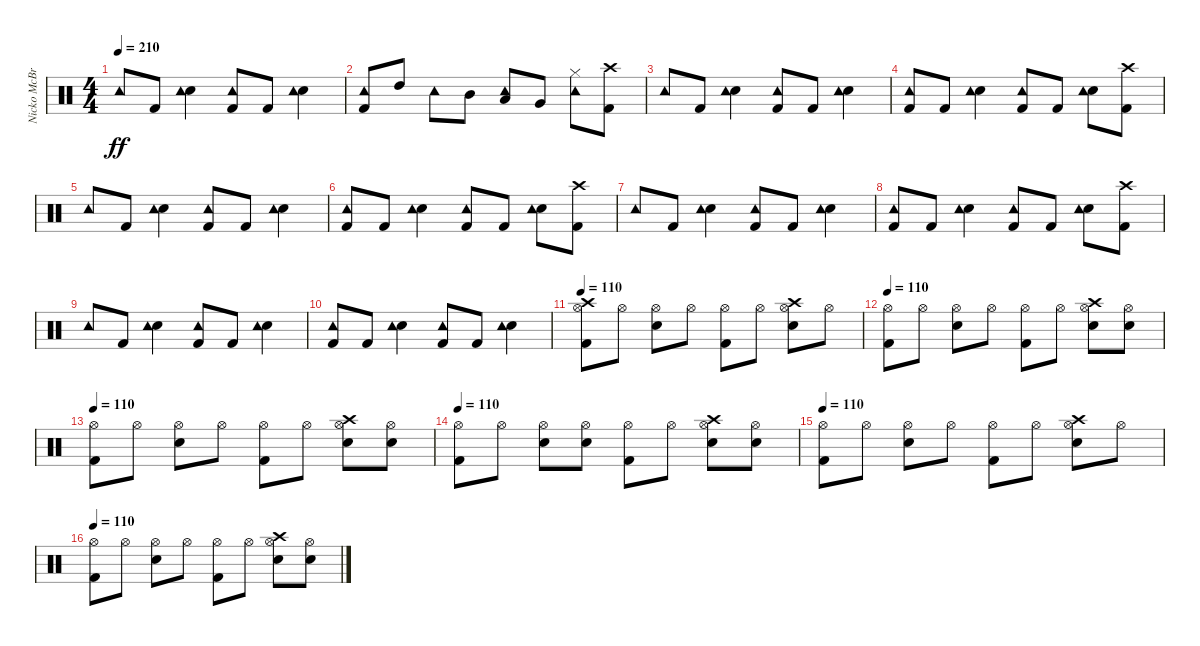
\track ("Nicko McBrain" "Nicko McBr") {instrument percussion}
\staff {score}
\articulation defaults
\ts (4 4)
\tempo 210
\clef neutral
\ks c "Tambourine (hit)".8{dy ff} "Kick (hit) 2".8
("Snare (hit) 2" "Tambourine (hit)").4 ("Kick (hit) 2" "Tambourine (hit)").8 "Kick (hit) 2".8 ("Snare (hit) 2" "Tambourine (hit)").4 |
("Kick (hit) 2" "Tambourine (hit)").8 "High Tom (hit)".8 "Tambourine (hit)".8 "Mid Tom (hit)".8 ("Low Tom (hit)" "Tambourine (hit)").8 "Very Low Tom (hit)".8 ("Hi-Hat (closed)" "Tambourine (hit)").8 ("Kick (hit) 2" "Crash high (hit)").8 |
"Tambourine (hit)".8 "Kick (hit) 2".8 ("Snare (hit) 2" "Tambourine (hit)").4 ("Kick (hit) 2" "Tambourine (hit)").8 "Kick (hit) 2".8 ("Snare (hit) 2" "Tambourine (hit)").4 |
("Kick (hit) 2" "Tambourine (hit)").8 "Kick (hit) 2".8 ("Snare (hit) 2" "Tambourine (hit)").4 ("Kick (hit) 2" "Tambourine (hit)").8 "Kick (hit) 2".8 ("Snare (hit) 2" "Tambourine (hit)").8 ("Kick (hit) 2" "Crash high (hit)").8 |
"Tambourine (hit)".8 "Kick (hit) 2".8 ("Snare (hit) 2" "Tambourine (hit)").4 ("Kick (hit) 2" "Tambourine (hit)").8 "Kick (hit) 2".8 ("Snare (hit) 2" "Tambourine (hit)").4 |
("Kick (hit) 2" "Tambourine (hit)").8 "Kick (hit) 2".8 ("Snare (hit) 2" "Tambourine (hit)").4 ("Kick (hit) 2" "Tambourine (hit)").8 "Kick (hit) 2".8 ("Snare (hit) 2" "Tambourine (hit)").8 ("Kick (hit) 2" "Crash high (hit)").8 |
"Tambourine (hit)".8 "Kick (hit) 2".8 ("Snare (hit) 2" "Tambourine (hit)").4 ("Kick (hit) 2" "Tambourine (hit)").8 "Kick (hit) 2".8 ("Snare (hit) 2" "Tambourine (hit)").4 |
("Kick (hit) 2" "Tambourine (hit)").8 "Kick (hit) 2".8 ("Snare (hit) 2" "Tambourine (hit)").4 ("Kick (hit) 2" "Tambourine (hit)").8 "Kick (hit) 2".8 ("Snare (hit) 2" "Tambourine (hit)").8 ("Kick (hit) 2" "Crash high (hit)").8 |
"Tambourine (hit)".8 "Kick (hit) 2".8 ("Snare (hit) 2" "Tambourine (hit)").4 ("Kick (hit) 2" "Tambourine (hit)").8 "Kick (hit) 2".8 ("Snare (hit) 2" "Tambourine (hit)").4 |
("Kick (hit) 2" "Tambourine (hit)").8 "Kick (hit) 2".8 ("Snare (hit) 2" "Tambourine (hit)").4 ("Kick (hit) 2" "Tambourine (hit)").8 "Kick (hit) 2".8 ("Snare (hit) 2" "Tambourine (hit)").4 |
\tempo 105
\tempo 110
("Kick (hit) 2" "Hi-Hat (open)" "Crash high (hit)").8 "Hi-Hat (open)".8 ("Snare (hit) 2" "Hi-Hat (open)").8 "Hi-Hat (open)".8 ("Kick (hit) 2" "Hi-Hat (open)").8 "Hi-Hat (open)".8 ("Snare (hit) 2" "Hi-Hat (open)" "Crash high (hit)").8 "Hi-Hat (open)".8 |
\tempo 110
("Kick (hit) 2" "Hi-Hat (open)").8 "Hi-Hat (open)".8 ("Snare (hit) 2" "Hi-Hat (open)").8 "Hi-Hat (open)".8 ("Kick (hit) 2" "Hi-Hat (open)").8 "Hi-Hat (open)".8 ("Snare (hit) 2" "Hi-Hat (open)" "Crash high (hit)").8 ("Snare (hit) 2" "Hi-Hat (open)").8 |
\tempo 110
("Kick (hit) 2" "Hi-Hat (open)").8 "Hi-Hat (open)".8 ("Snare (hit) 2" "Hi-Hat (open)").8 "Hi-Hat (open)".8 ("Kick (hit) 2" "Hi-Hat (open)").8 "Hi-Hat (open)".8 ("Snare (hit) 2" "Hi-Hat (open)" "Crash high (hit)").8 ("Snare (hit) 2" "Hi-Hat (open)").8 |
\tempo 110
("Kick (hit) 2" "Hi-Hat (open)").8 "Hi-Hat (open)".8 ("Snare (hit) 2" "Hi-Hat (open)").8 ("Snare (hit) 2" "Hi-Hat (open)").8 ("Kick (hit) 2" "Hi-Hat (open)").8 "Hi-Hat (open)".8 ("Snare (hit) 2" "Hi-Hat (open)" "Crash high (hit)").8 ("Snare (hit) 2" "Hi-Hat (open)").8 |
\tempo 110
("Kick (hit) 2" "Hi-Hat (open)").8 "Hi-Hat (open)".8 ("Snare (hit) 2" "Hi-Hat (open)").8 "Hi-Hat (open)".8 ("Kick (hit) 2" "Hi-Hat (open)").8 "Hi-Hat (open)".8 ("Snare (hit) 2" "Hi-Hat (open)" "Crash high (hit)").8 "Hi-Hat (open)".8 |
\tempo 110
("Kick (hit) 2" "Hi-Hat (open)").8 "Hi-Hat (open)".8 ("Snare (hit) 2" "Hi-Hat (open)").8 "Hi-Hat (open)".8 ("Kick (hit) 2" "Hi-Hat (open)").8 "Hi-Hat (open)".8 ("Snare (hit) 2" "Hi-Hat (open)" "Crash high (hit)").8 ("Snare (hit) 2" "Hi-Hat (open)").8
